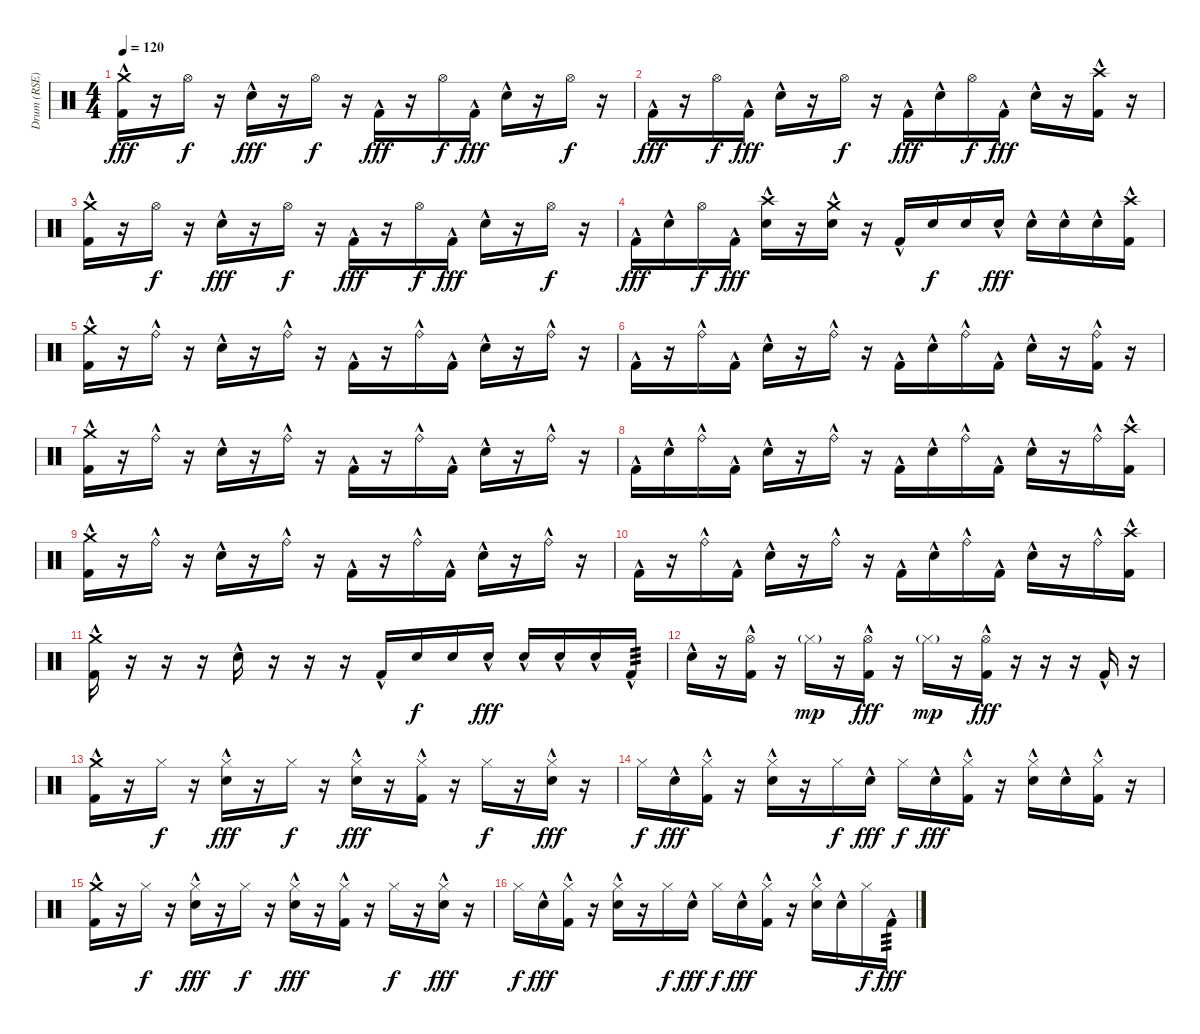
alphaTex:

\track ("Drum (RSE)" "Drum (RSE)") {instrument percussion}
\staff {score}
\articulation defaults
\ts (4 4)
\tempo 120
\clef neutral
\ks c
("Crash medium (hit)" "Kick (hit) 2"{hac}).16{dy fff} r.16 "Hi-Hat (open)".16{dy f} r.16 "Snare (hit) 2"{hac}.16{dy fff} r.16 "Hi-Hat (open)".16{dy f} r.16 "Kick (hit) 2"{hac}.16{dy fff} r.16 "Hi-Hat (open)".16{dy f} "Kick (hit) 2"{hac}.16{dy fff} "Snare (hit) 2"{hac}.16 r.16 "Hi-Hat (open)".16{dy f} r.16 |
"Kick (hit) 2"{hac}.16{dy fff} r.16 "Hi-Hat (open)".16{dy f} "Kick (hit) 2"{hac}.16{dy fff} "Snare (hit) 2"{hac}.16 r.16 "Hi-Hat (open)".16{dy f} r.16 "Kick (hit) 2"{hac}.16{dy fff} "Snare (hit) 2"{hac}.16 "Hi-Hat (open)".16{dy f} "Kick (hit) 2"{hac}.16{dy fff} "Snare (hit) 2"{hac}.16 r.16 ("Crash high (hit)" "Kick (hit) 2"{hac}).16 r.16 |
("Crash medium (hit)" "Kick (hit) 2"{hac}).16 r.16 "Hi-Hat (open)".16{dy f} r.16 "Snare (hit) 2"{hac}.16{dy fff} r.16 "Hi-Hat (open)".16{dy f} r.16 "Kick (hit) 2"{hac}.16{dy fff} r.16 "Hi-Hat (open)".16{dy f} "Kick (hit) 2"{hac}.16{dy fff} "Snare (hit) 2"{hac}.16 r.16 "Hi-Hat (open)".16{dy f} r.16 |
"Kick (hit) 2"{hac}.16{dy fff} "Snare (hit) 2"{hac}.16 "Hi-Hat (open)".16{dy f} "Kick (hit) 2"{hac}.16{dy fff} ("Crash high (hit)" "Snare (hit) 2"{hac}).16 r.16 ("Crash medium (hit)" "Snare (hit) 2"{hac}).16 r.16 "Kick (hit) 2"{hac}.16 "Snare (hit) 2".16{dy f} "Snare (hit) 2".16 "Snare (hit) 2"{hac}.16{dy fff} "Snare (hit) 2"{hac}.16 "Snare (hit) 2"{hac}.16 "Snare (hit) 2"{hac}.16 ("Crash high (hit)" "Kick (hit) 2"{hac}).16 |
("Crash medium (hit)" "Kick (hit) 2"{hac}).16 r.16 "Ride (bell)"{hac}.16 r.16 "Snare (hit) 2"{hac}.16 r.16 "Ride (bell)"{hac}.16 r.16 "Kick (hit) 2"{hac}.16 r.16 "Ride (bell)"{hac}.16 "Kick (hit) 2"{hac}.16 "Snare (hit) 2"{hac}.16 r.16 "Ride (bell)"{hac}.16 r.16 |
"Kick (hit) 2"{hac}.16 r.16 "Ride (bell)"{hac}.16 "Kick (hit) 2"{hac}.16 "Snare (hit) 2"{hac}.16 r.16 "Ride (bell)"{hac}.16 r.16 "Kick (hit) 2"{hac}.16 "Snare (hit) 2"{hac}.16 "Ride (bell)"{hac}.16 "Kick (hit) 2"{hac}.16 "Snare (hit) 2"{hac}.16 r.16 ("Ride (bell)"{hac} "Kick (hit) 2"{hac}).16 r.16 |
("Crash medium (hit)" "Kick (hit) 2"{hac}).16 r.16 "Ride (bell)"{hac}.16 r.16 "Snare (hit) 2"{hac}.16 r.16 "Ride (bell)"{hac}.16 r.16 "Kick (hit) 2"{hac}.16 r.16 "Ride (bell)"{hac}.16 "Kick (hit) 2"{hac}.16 "Snare (hit) 2"{hac}.16 r.16 "Ride (bell)"{hac}.16 r.16 |
"Kick (hit) 2"{hac}.16 "Snare (hit) 2"{hac}.16 "Ride (bell)"{hac}.16 "Kick (hit) 2"{hac}.16 "Snare (hit) 2"{hac}.16 r.16 "Ride (bell)"{hac}.16 r.16 "Kick (hit) 2"{hac}.16 "Snare (hit) 2"{hac}.16 "Ride (bell)"{hac}.16 "Kick (hit) 2"{hac}.16 "Snare (hit) 2"{hac}.16 r.16 "Ride (bell)"{hac}.16 ("Crash high (hit)" "Kick (hit) 2"{hac}).16 |
("Crash medium (hit)" "Kick (hit) 2"{hac}).16 r.16 "Ride (bell)"{hac}.16 r.16 "Snare (hit) 2"{hac}.16 r.16 "Ride (bell)"{hac}.16 r.16 "Kick (hit) 2"{hac}.16 r.16 "Ride (bell)"{hac}.16 "Kick (hit) 2"{hac}.16 "Snare (hit) 2"{hac}.16 r.16 "Ride (bell)"{hac}.16 r.16 |
"Kick (hit) 2"{hac}.16 r.16 "Ride (bell)"{hac}.16 "Kick (hit) 2"{hac}.16 "Snare (hit) 2"{hac}.16 r.16 "Ride (bell)"{hac}.16 r.16 "Kick (hit) 2"{hac}.16 "Snare (hit) 2"{hac}.16 "Ride (bell)"{hac}.16 "Kick (hit) 2"{hac}.16 "Snare (hit) 2"{hac}.16 r.16 "Ride (bell)"{hac}.16 ("Crash high (hit)" "Kick (hit) 2"{hac}).16 |
("Crash medium (hit)" "Kick (hit) 2"{hac}).16 r.16 r.16 r.16 "Snare (hit) 2"{hac}.16 r.16 r.16 r.16 "Kick (hit) 2"{hac}.16 "Snare (hit) 2".16{dy f} "Snare (hit) 2".16 "Snare (hit) 2"{hac}.16{dy fff} "Snare (hit) 2"{hac}.16 "Snare (hit) 2"{hac}.16 "Snare (hit) 2"{hac}.16 "Kick (hit) 2"{hac}.16{tp 3} |
"Snare (hit) 2"{hac}.16 r.16 ("Hi-Hat (open)" "Kick (hit) 2"{hac}).16 r.16 "Hi-Hat (closed)"{g}.16{dy mp} r.16 ("Hi-Hat (open)" "Kick (hit) 2"{hac}).16{dy fff} r.16 "Hi-Hat (closed)"{g}.16{dy mp} r.16 ("Hi-Hat (open)" "Kick (hit) 2"{hac}).16{dy fff} r.16 r.16 r.16 "Kick (hit) 2"{hac}.16 r.16 |
("Crash medium (hit)" "Kick (hit) 2"{hac}).16 r.16 "Hi-Hat (closed)".16{dy f} r.16 ("Hi-Hat (closed)" "Snare (hit) 2"{hac}).16{dy fff} r.16 "Hi-Hat (closed)".16{dy f} r.16 ("Hi-Hat (closed)" "Snare (hit) 2"{hac}).16{dy fff} r.16 ("Hi-Hat (closed)" "Kick (hit) 2"{hac}).16 r.16 "Hi-Hat (closed)".16{dy f} r.16 ("Hi-Hat (closed)" "Snare (hit) 2"{hac}).16{dy fff} r.16 |
"Hi-Hat (closed)".16{dy f} "Snare (hit) 2"{hac}.16{dy fff} ("Hi-Hat (closed)" "Kick (hit) 2"{hac}).16 r.16 ("Hi-Hat (closed)" "Snare (hit) 2"{hac}).16 r.16 "Hi-Hat (closed)".16{dy f} "Snare (hit) 2"{hac}.16{dy fff} "Hi-Hat (closed)".16{dy f} "Snare (hit) 2"{hac}.16{dy fff} ("Hi-Hat (closed)" "Kick (hit) 2"{hac}).16 r.16 ("Hi-Hat (closed)" "Snare (hit) 2"{hac}).16 "Snare (hit) 2"{hac}.16 ("Hi-Hat (closed)" "Kick (hit) 2"{hac}).16 r.16 |
("Crash medium (hit)" "Kick (hit) 2"{hac}).16 r.16 "Hi-Hat (closed)".16{dy f} r.16 ("Hi-Hat (closed)" "Snare (hit) 2"{hac}).16{dy fff} r.16 "Hi-Hat (closed)".16{dy f} r.16 ("Hi-Hat (closed)" "Snare (hit) 2"{hac}).16{dy fff} r.16 ("Hi-Hat (closed)" "Kick (hit) 2"{hac}).16 r.16 "Hi-Hat (closed)".16{dy f} r.16 ("Hi-Hat (closed)" "Snare (hit) 2"{hac}).16{dy fff} r.16 |
"Hi-Hat (closed)".16{dy f} "Snare (hit) 2"{hac}.16{dy fff} ("Hi-Hat (closed)" "Kick (hit) 2"{hac}).16 r.16 ("Hi-Hat (closed)" "Snare (hit) 2"{hac}).16 r.16 "Hi-Hat (closed)".16{dy f} "Snare (hit) 2"{hac}.16{dy fff} "Hi-Hat (closed)".16{dy f} "Snare (hit) 2"{hac}.16{dy fff} ("Hi-Hat (closed)" "Kick (hit) 2"{hac}).16 r.16 ("Hi-Hat (closed)" "Snare (hit) 2"{hac}).16 "Snare (hit) 2"{hac}.16 "Hi-Hat (closed)".16{dy f} "Kick (hit) 2"{hac}.16{tp 3 dy fff}
